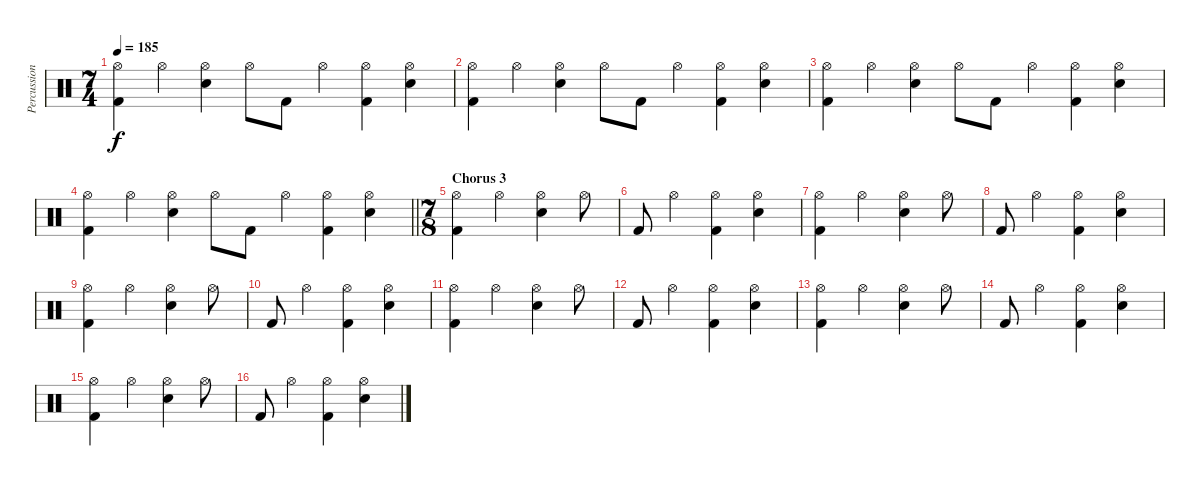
\track ("Percussion" "Percussion") {instrument percussion}
\staff {score}
\articulation defaults
\ts (7 4)
\tempo 185
\clef neutral
\ks c
("Hi-Hat (open)" "Kick (hit) 2").4{dy f} "Hi-Hat (open)".4 ("Hi-Hat (open)" "Snare (hit) 2").4 "Hi-Hat (open)".8 "Kick (hit) 2".8 "Hi-Hat (open)".4 ("Hi-Hat (open)" "Kick (hit) 2").4 ("Hi-Hat (open)" "Snare (hit) 2").4 |
("Hi-Hat (open)" "Kick (hit) 2").4 "Hi-Hat (open)".4 ("Hi-Hat (open)" "Snare (hit) 2").4 "Hi-Hat (open)".8 "Kick (hit) 2".8 "Hi-Hat (open)".4 ("Hi-Hat (open)" "Kick (hit) 2").4 ("Hi-Hat (open)" "Snare (hit) 2").4 |
("Hi-Hat (open)" "Kick (hit) 2").4 "Hi-Hat (open)".4 ("Hi-Hat (open)" "Snare (hit) 2").4 "Hi-Hat (open)".8 "Kick (hit) 2".8 "Hi-Hat (open)".4 ("Hi-Hat (open)" "Kick (hit) 2").4 ("Hi-Hat (open)" "Snare (hit) 2").4 |
\barLineRight lightlight
("Hi-Hat (open)" "Kick (hit) 2").4 "Hi-Hat (open)".4 ("Hi-Hat (open)" "Snare (hit) 2").4 "Hi-Hat (open)".8 "Kick (hit) 2".8 "Hi-Hat (open)".4 ("Hi-Hat (open)" "Kick (hit) 2").4 ("Hi-Hat (open)" "Snare (hit) 2").4 |
\ts (7 8)
\section ("" "Chorus 3")
("Hi-Hat (open)" "Kick (hit) 2").4 "Hi-Hat (open)".4 ("Hi-Hat (open)" "Snare (hit) 2").4 "Hi-Hat (open)".8 |
"Kick (hit) 2".8 "Hi-Hat (open)".4 ("Hi-Hat (open)" "Kick (hit) 2").4 ("Hi-Hat (open)" "Snare (hit) 2").4 |
("Hi-Hat (open)" "Kick (hit) 2").4 "Hi-Hat (open)".4 ("Hi-Hat (open)" "Snare (hit) 2").4 "Hi-Hat (open)".8 |
"Kick (hit) 2".8 "Hi-Hat (open)".4 ("Hi-Hat (open)" "Kick (hit) 2").4 ("Hi-Hat (open)" "Snare (hit) 2").4 |
("Hi-Hat (open)" "Kick (hit) 2").4 "Hi-Hat (open)".4 ("Hi-Hat (open)" "Snare (hit) 2").4 "Hi-Hat (open)".8 |
"Kick (hit) 2".8 "Hi-Hat (open)".4 ("Hi-Hat (open)" "Kick (hit) 2").4 ("Hi-Hat (open)" "Snare (hit) 2").4 |
("Hi-Hat (open)" "Kick (hit) 2").4 "Hi-Hat (open)".4 ("Hi-Hat (open)" "Snare (hit) 2").4 "Hi-Hat (open)".8 |
"Kick (hit) 2".8 "Hi-Hat (open)".4 ("Hi-Hat (open)" "Kick (hit) 2").4 ("Hi-Hat (open)" "Snare (hit) 2").4 |
("Hi-Hat (open)" "Kick (hit) 2").4 "Hi-Hat (open)".4 ("Hi-Hat (open)" "Snare (hit) 2").4 "Hi-Hat (open)".8 |
"Kick (hit) 2".8 "Hi-Hat (open)".4 ("Hi-Hat (open)" "Kick (hit) 2").4 ("Hi-Hat (open)" "Snare (hit) 2").4 |
("Hi-Hat (open)" "Kick (hit) 2").4 "Hi-Hat (open)".4 ("Hi-Hat (open)" "Snare (hit) 2").4 "Hi-Hat (open)".8 |
"Kick (hit) 2".8 "Hi-Hat (open)".4 ("Hi-Hat (open)" "Kick (hit) 2").4 ("Hi-Hat (open)" "Snare (hit) 2").4
